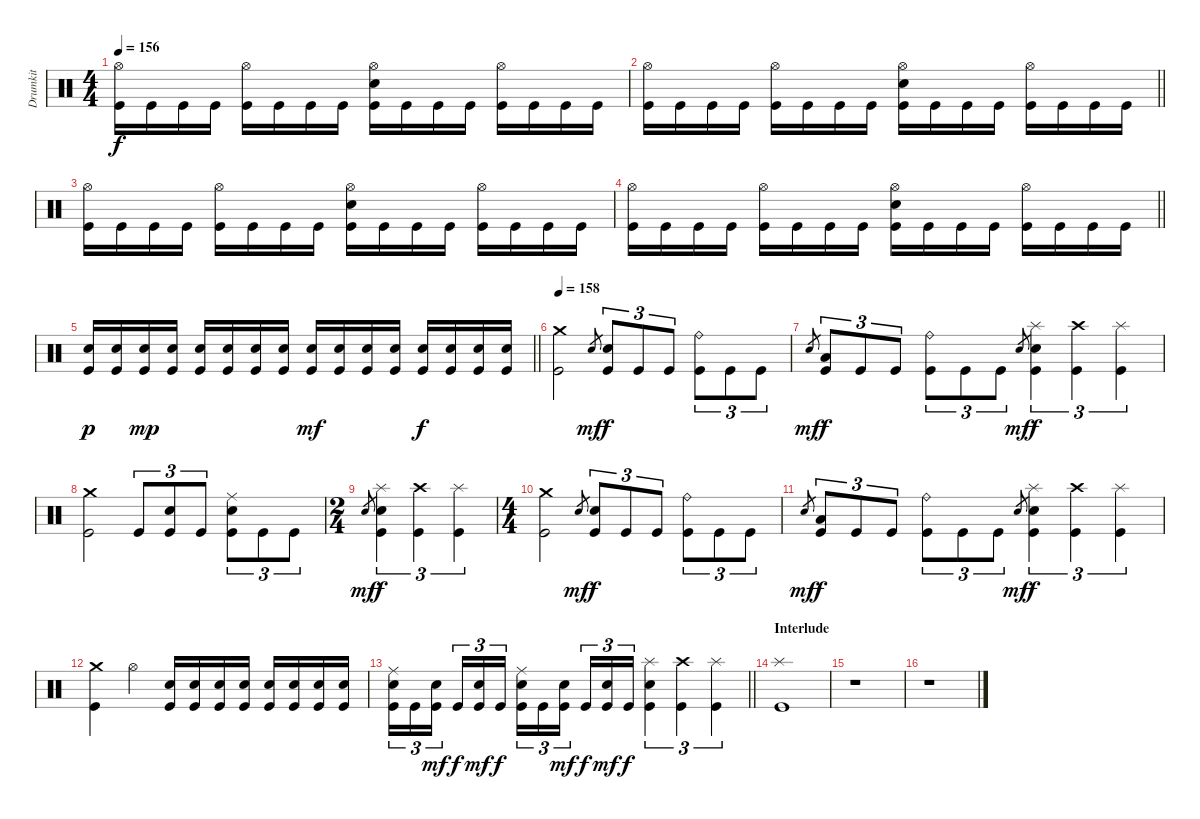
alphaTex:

\track ("Drumkit" "Drumkit") {instrument percussion}
\staff {score}
\articulation defaults
\ts (4 4)
\tempo 156
\clef neutral
\ks c
("Hi-Hat (open)" "Kick (hit)").16{dy f} "Kick (hit)".16 "Kick (hit)".16 "Kick (hit)".16 ("Hi-Hat (open)" "Kick (hit)").16 "Kick (hit)".16 "Kick (hit)".16 "Kick (hit)".16 ("Hi-Hat (open)" "Snare (hit) 2" "Kick (hit)").16 "Kick (hit)".16 "Kick (hit)".16 "Kick (hit)".16 ("Hi-Hat (open)" "Kick (hit)").16 "Kick (hit)".16 "Kick (hit)".16 "Kick (hit)".16 |
\barLineRight lightlight
("Hi-Hat (open)" "Kick (hit)").16 "Kick (hit)".16 "Kick (hit)".16 "Kick (hit)".16 ("Hi-Hat (open)" "Kick (hit)").16 "Kick (hit)".16 "Kick (hit)".16 "Kick (hit)".16 ("Hi-Hat (open)" "Snare (hit) 2" "Kick (hit)").16 "Kick (hit)".16 "Kick (hit)".16 "Kick (hit)".16 ("Hi-Hat (open)" "Kick (hit)").16 "Kick (hit)".16 "Kick (hit)".16 "Kick (hit)".16 |
("Hi-Hat (open)" "Kick (hit)").16 "Kick (hit)".16 "Kick (hit)".16 "Kick (hit)".16 ("Hi-Hat (open)" "Kick (hit)").16 "Kick (hit)".16 "Kick (hit)".16 "Kick (hit)".16 ("Hi-Hat (open)" "Snare (hit) 2" "Kick (hit)").16 "Kick (hit)".16 "Kick (hit)".16 "Kick (hit)".16 ("Hi-Hat (open)" "Kick (hit)").16 "Kick (hit)".16 "Kick (hit)".16 "Kick (hit)".16 |
\barLineRight lightlight
("Hi-Hat (open)" "Kick (hit)").16 "Kick (hit)".16 "Kick (hit)".16 "Kick (hit)".16 ("Hi-Hat (open)" "Kick (hit)").16 "Kick (hit)".16 "Kick (hit)".16 "Kick (hit)".16 ("Hi-Hat (open)" "Snare (hit) 2" "Kick (hit)").16 "Kick (hit)".16 "Kick (hit)".16 "Kick (hit)".16 ("Hi-Hat (open)" "Kick (hit)").16 "Kick (hit)".16 "Kick (hit)".16 "Kick (hit)".16 |
\barLineRight lightlight
("Snare (hit) 2" "Kick (hit)").16{dy p} ("Snare (hit) 2" "Kick (hit)").16 ("Snare (hit) 2" "Kick (hit)").16{dy mp} ("Snare (hit) 2" "Kick (hit)").16 ("Snare (hit) 2" "Kick (hit)").16 ("Snare (hit) 2" "Kick (hit)").16 ("Snare (hit) 2" "Kick (hit)").16 ("Snare (hit) 2" "Kick (hit)").16 ("Snare (hit) 2" "Kick (hit)").16{dy mf} ("Snare (hit) 2" "Kick (hit)").16 ("Snare (hit) 2" "Kick (hit)").16 ("Snare (hit) 2" "Kick (hit)").16 ("Snare (hit) 2" "Kick (hit)").16{dy f} ("Snare (hit) 2" "Kick (hit)").16 ("Snare (hit) 2" "Kick (hit)").16 ("Snare (hit) 2" "Kick (hit)").16 |
\section ("" "")
\tempo 158
("Crash medium (hit)" "Kick (hit)").2 "Snare (hit)".8{gr dy mf} ("Snare (hit) 2" "Kick (hit)").8{tu (3 2) dy f} "Kick (hit)".8{tu (3 2)} "Kick (hit)".8{tu (3 2)} ("Ride (bell)" "Kick (hit)").8{tu (3 2)} "Kick (hit)".8{tu (3 2)} "Kick (hit)".8{tu (3 2)} |
"Snare (hit)".8{gr dy mf} ("Low Tom (hit)" "Kick (hit)").8{tu (3 2) dy f} "Kick (hit)".8{tu (3 2)} "Kick (hit)".8{tu (3 2)} ("Ride (bell)" "Kick (hit)").8{tu (3 2)} "Kick (hit)".8{tu (3 2)} "Kick (hit)".8{tu (3 2)} "Snare (hit)".8{gr dy mf} ("Splash (hit)" "Snare (hit) 2" "Kick (hit)").4{tu (3 2) dy f} ("Crash high (hit)" "Kick (hit)").4{tu (3 2)} ("Splash (hit)" "Kick (hit)").4{tu (3 2)} |
("Crash medium (hit)" "Kick (hit)").2 "Kick (hit)".8{tu (3 2)} ("Snare (hit) 2" "Kick (hit)").8{tu (3 2)} "Kick (hit)".8{tu (3 2)} ("Ride (middle)" "Snare (hit) 2" "Kick (hit)").8{tu (3 2)} "Kick (hit)".8{tu (3 2)} "Kick (hit)".8{tu (3 2)} |
\ts (2 4)
"Snare (hit)".8{gr dy mf} ("Splash (hit)" "Snare (hit) 2" "Kick (hit)").4{tu (3 2) dy f} ("Crash high (hit)" "Kick (hit)").4{tu (3 2)} ("Splash (hit)" "Kick (hit)").4{tu (3 2)} |
\ts (4 4)
("Crash medium (hit)" "Kick (hit)").2 "Snare (hit)".8{gr dy mf} ("Snare (hit) 2" "Kick (hit)").8{tu (3 2) dy f} "Kick (hit)".8{tu (3 2)} "Kick (hit)".8{tu (3 2)} ("Ride (bell)" "Kick (hit)").8{tu (3 2)} "Kick (hit)".8{tu (3 2)} "Kick (hit)".8{tu (3 2)} |
"Snare (hit)".8{gr dy mf} ("Low Tom (hit)" "Kick (hit)").8{tu (3 2) dy f} "Kick (hit)".8{tu (3 2)} "Kick (hit)".8{tu (3 2)} ("Ride (bell)" "Kick (hit)").8{tu (3 2)} "Kick (hit)".8{tu (3 2)} "Kick (hit)".8{tu (3 2)} "Snare (hit)".8{gr dy mf} ("Splash (hit)" "Snare (hit) 2" "Kick (hit)").4{tu (3 2) dy f} ("Crash high (hit)" "Kick (hit)").4{tu (3 2)} ("Splash (hit)" "Kick (hit)").4{tu (3 2)} |
("Crash medium (hit)" "Kick (hit)").4 "Hi-Hat (open)".4 ("Snare (hit) 2" "Kick (hit)").16 ("Snare (hit) 2" "Kick (hit)").16 ("Snare (hit) 2" "Kick (hit)").16 ("Snare (hit) 2" "Kick (hit)").16 ("Snare (hit) 2" "Kick (hit)").16 ("Snare (hit) 2" "Kick (hit)").16 ("Snare (hit) 2" "Kick (hit)").16 ("Snare (hit) 2" "Kick (hit)").16 |
\barLineRight lightlight
("Ride (middle)" "Snare (hit) 2" "Kick (hit)").16{tu (3 2)} "Kick (hit)".16{tu (3 2)} ("Snare (hit) 2" "Kick (hit)").16{tu (3 2) dy mf} "Kick (hit)".16{tu (3 2) dy f} ("Snare (hit) 2" "Kick (hit)").16{tu (3 2) dy mf} "Kick (hit)".16{tu (3 2) dy f} ("Ride (middle)" "Snare (hit) 2" "Kick (hit)").16{tu (3 2)} "Kick (hit)".16{tu (3 2)} ("Snare (hit) 2" "Kick (hit)").16{tu (3 2) dy mf} "Kick (hit)".16{tu (3 2) dy f} ("Snare (hit) 2" "Kick (hit)").16{tu (3 2) dy mf} "Kick (hit)".16{tu (3 2) dy f} ("Splash (hit)" "Snare (hit) 2" "Kick (hit)").4{tu (3 2)} ("Crash high (hit)" "Kick (hit)").4{tu (3 2)} ("Splash (hit)" "Kick (hit)").4{tu (3 2)} |
\section ("" "Interlude")
("Splash (hit)" "Kick (hit)").1 |
r.1 |
r.1
